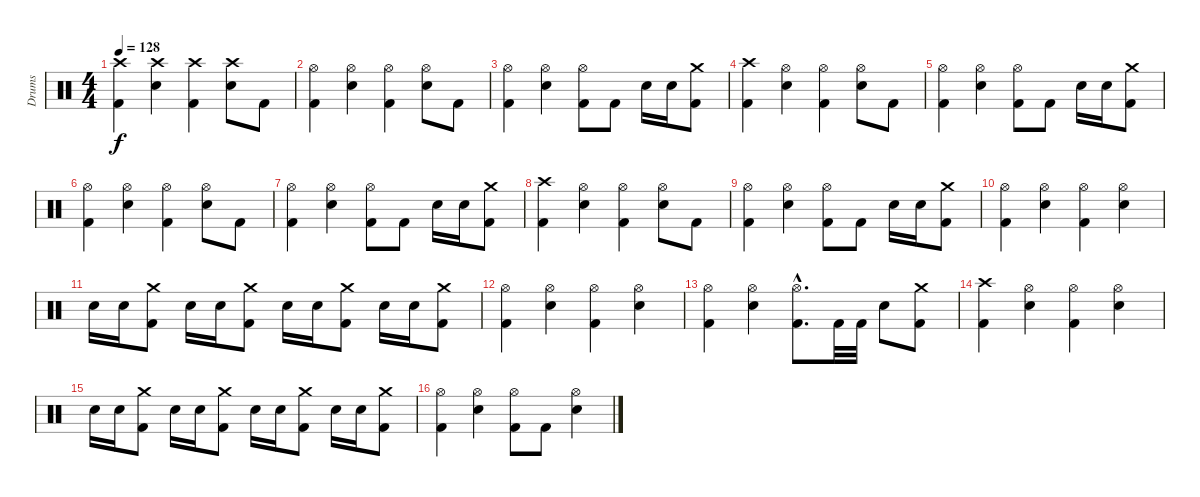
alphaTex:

\track ("Drums" "Drums") {instrument percussion}
\staff {score}
\articulation defaults
\ts (4 4)
\tempo 128
\clef neutral
\ks c
("Crash high (hit)" "Kick (hit) 2").4{dy f} ("Crash high (hit)" "Snare (hit) 2").4 ("Crash high (hit)" "Kick (hit) 2").4 ("Crash high (hit)" "Snare (hit) 2").8 "Kick (hit) 2".8 |
("Hi-Hat (open)" "Kick (hit) 2").4 ("Hi-Hat (open)" "Snare (hit) 2").4 ("Hi-Hat (open)" "Kick (hit) 2").4 ("Hi-Hat (open)" "Snare (hit) 2").8 "Kick (hit) 2".8 |
("Hi-Hat (open)" "Kick (hit) 2").4 ("Hi-Hat (open)" "Snare (hit) 2").4 ("Hi-Hat (open)" "Kick (hit) 2").8 "Kick (hit) 2".8 "Snare (hit) 2".16 "Snare (hit) 2".16 ("Crash medium (hit)" "Kick (hit) 2").8 |
("Crash high (hit)" "Kick (hit) 2").4 ("Hi-Hat (open)" "Snare (hit) 2").4 ("Hi-Hat (open)" "Kick (hit) 2").4 ("Hi-Hat (open)" "Snare (hit) 2").8 "Kick (hit) 2".8 |
("Hi-Hat (open)" "Kick (hit) 2").4 ("Hi-Hat (open)" "Snare (hit) 2").4 ("Hi-Hat (open)" "Kick (hit) 2").8 "Kick (hit) 2".8 "Snare (hit) 2".16 "Snare (hit) 2".16 ("Crash medium (hit)" "Kick (hit) 2").8 |
("Hi-Hat (open)" "Kick (hit) 2").4 ("Hi-Hat (open)" "Snare (hit) 2").4 ("Hi-Hat (open)" "Kick (hit) 2").4 ("Hi-Hat (open)" "Snare (hit) 2").8 "Kick (hit) 2".8 |
("Hi-Hat (open)" "Kick (hit) 2").4 ("Hi-Hat (open)" "Snare (hit) 2").4 ("Hi-Hat (open)" "Kick (hit) 2").8 "Kick (hit) 2".8 "Snare (hit) 2".16 "Snare (hit) 2".16 ("Crash medium (hit)" "Kick (hit) 2").8 |
("Crash high (hit)" "Kick (hit) 2").4 ("Hi-Hat (open)" "Snare (hit) 2").4 ("Hi-Hat (open)" "Kick (hit) 2").4 ("Hi-Hat (open)" "Snare (hit) 2").8 "Kick (hit) 2".8 |
("Hi-Hat (open)" "Kick (hit) 2").4 ("Hi-Hat (open)" "Snare (hit) 2").4 ("Hi-Hat (open)" "Kick (hit) 2").8 "Kick (hit) 2".8 "Snare (hit) 2".16 "Snare (hit) 2".16 ("Crash medium (hit)" "Kick (hit) 2").8 |
("Hi-Hat (open)" "Kick (hit) 2").4 ("Hi-Hat (open)" "Snare (hit) 2").4 ("Hi-Hat (open)" "Kick (hit) 2").4 ("Hi-Hat (open)" "Snare (hit) 2").4 |
"Snare (hit) 2".16 "Snare (hit) 2".16 ("Crash medium (hit)" "Kick (hit) 2").8 "Snare (hit) 2".16 "Snare (hit) 2".16 ("Crash medium (hit)" "Kick (hit) 2").8 "Snare (hit) 2".16 "Snare (hit) 2".16 ("Crash medium (hit)" "Kick (hit) 2").8 "Snare (hit) 2".16 "Snare (hit) 2".16 ("Crash medium (hit)" "Kick (hit) 2").8 |
("Hi-Hat (open)" "Kick (hit) 2").4 ("Hi-Hat (open)" "Snare (hit) 2").4 ("Hi-Hat (open)" "Kick (hit) 2").4 ("Hi-Hat (open)" "Snare (hit) 2").4 |
("Hi-Hat (open)" "Kick (hit) 2").4 ("Hi-Hat (open)" "Snare (hit) 2").4 ("Hi-Hat (open)"{hac} "Kick (hit) 2"{hac}).8{d} "Kick (hit) 2".32 "Kick (hit) 2".32 "Snare (hit) 2".8 ("Crash medium (hit)" "Kick (hit) 2").8 |
("Crash high (hit)" "Kick (hit) 2").4 ("Hi-Hat (open)" "Snare (hit) 2").4 ("Hi-Hat (open)" "Kick (hit) 2").4 ("Hi-Hat (open)" "Snare (hit) 2").4 |
"Snare (hit) 2".16 "Snare (hit) 2".16 ("Crash medium (hit)" "Kick (hit) 2").8 "Snare (hit) 2".16 "Snare (hit) 2".16 ("Crash medium (hit)" "Kick (hit) 2").8 "Snare (hit) 2".16 "Snare (hit) 2".16 ("Crash medium (hit)" "Kick (hit) 2").8 "Snare (hit) 2".16 "Snare (hit) 2".16 ("Crash medium (hit)" "Kick (hit) 2").8 |
("Hi-Hat (open)" "Kick (hit) 2").4 ("Hi-Hat (open)" "Snare (hit) 2").4 ("Hi-Hat (open)" "Kick (hit) 2").8 "Kick (hit) 2".8 ("Hi-Hat (open)" "Snare (hit) 2").4
